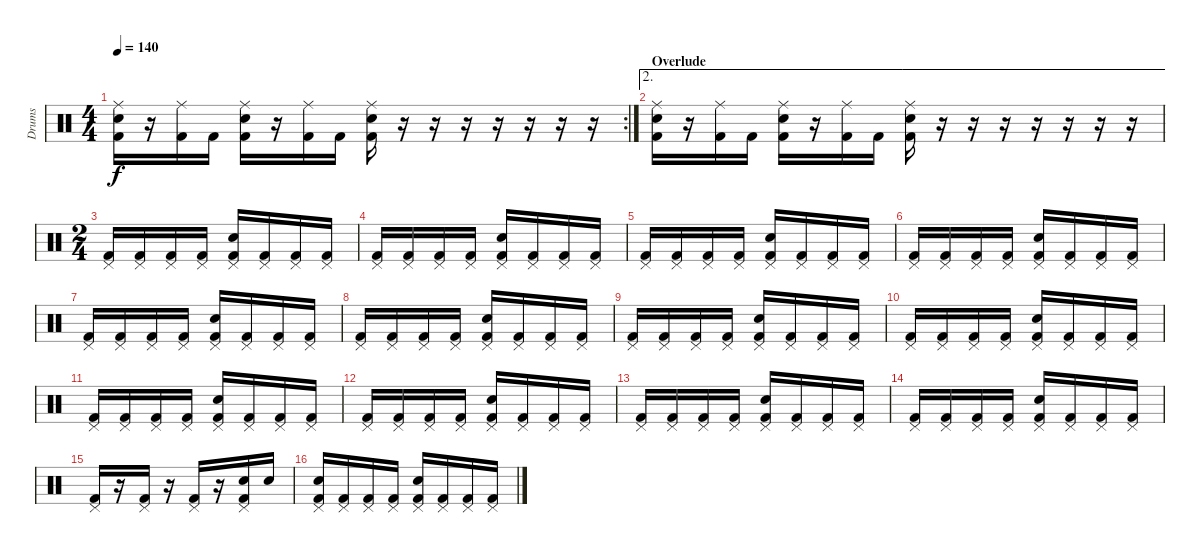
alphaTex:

\track ("Drums" "Drums") {instrument percussion}
\staff {score}
\articulation defaults
\rc 2
\ts (4 4)
\tempo 140
\clef neutral
\ks c
("Ride (middle)" "Snare (hit) 2" "Kick (hit) 2").16{dy f} r.16 ("Ride (middle)" "Kick (hit) 2").16 "Kick (hit) 2".16 ("Ride (middle)" "Snare (hit) 2" "Kick (hit) 2").16 r.16 ("Ride (middle)" "Kick (hit) 2").16 "Kick (hit) 2".16 ("Ride (middle)" "Electric Snare (hit)" "Kick (hit) 2").16 r.16 r.16 r.16 r.16 r.16 r.16 r.16 |
\ae 2
\section ("" "Overlude")
("Ride (middle)" "Snare (hit) 2" "Kick (hit) 2").16 r.16 ("Ride (middle)" "Kick (hit) 2").16 "Kick (hit) 2".16 ("Ride (middle)" "Snare (hit) 2" "Kick (hit) 2").16 r.16 ("Ride (middle)" "Kick (hit) 2").16 "Kick (hit) 2".16 ("Ride (middle)" "Electric Snare (hit)" "Kick (hit) 2").16 r.16 r.16 r.16 r.16 r.16 r.16 r.16 |
\ts (2 4)
("Pedal Hi-Hat (hit)" "Kick (hit) 2").16 ("Pedal Hi-Hat (hit)" "Kick (hit) 2").16 ("Pedal Hi-Hat (hit)" "Kick (hit) 2").16 ("Pedal Hi-Hat (hit)" "Kick (hit) 2").16 ("Pedal Hi-Hat (hit)" "Electric Snare (hit)" "Kick (hit) 2").16 ("Pedal Hi-Hat (hit)" "Kick (hit) 2").16 ("Pedal Hi-Hat (hit)" "Kick (hit) 2").16 ("Pedal Hi-Hat (hit)" "Kick (hit) 2").16 |
("Pedal Hi-Hat (hit)" "Kick (hit) 2").16 ("Pedal Hi-Hat (hit)" "Kick (hit) 2").16 ("Pedal Hi-Hat (hit)" "Kick (hit) 2").16 ("Pedal Hi-Hat (hit)" "Kick (hit) 2").16 ("Pedal Hi-Hat (hit)" "Electric Snare (hit)" "Kick (hit) 2").16 ("Pedal Hi-Hat (hit)" "Kick (hit) 2").16 ("Pedal Hi-Hat (hit)" "Kick (hit) 2").16 ("Pedal Hi-Hat (hit)" "Kick (hit) 2").16 |
("Pedal Hi-Hat (hit)" "Kick (hit) 2").16 ("Pedal Hi-Hat (hit)" "Kick (hit) 2").16 ("Pedal Hi-Hat (hit)" "Kick (hit) 2").16 ("Pedal Hi-Hat (hit)" "Kick (hit) 2").16 ("Pedal Hi-Hat (hit)" "Electric Snare (hit)" "Kick (hit) 2").16 ("Pedal Hi-Hat (hit)" "Kick (hit) 2").16 ("Pedal Hi-Hat (hit)" "Kick (hit) 2").16 ("Pedal Hi-Hat (hit)" "Kick (hit) 2").16 |
("Pedal Hi-Hat (hit)" "Kick (hit) 2").16 ("Pedal Hi-Hat (hit)" "Kick (hit) 2").16 ("Pedal Hi-Hat (hit)" "Kick (hit) 2").16 ("Pedal Hi-Hat (hit)" "Kick (hit) 2").16 ("Pedal Hi-Hat (hit)" "Electric Snare (hit)" "Kick (hit) 2").16 ("Pedal Hi-Hat (hit)" "Kick (hit) 2").16 ("Pedal Hi-Hat (hit)" "Kick (hit) 2").16 ("Pedal Hi-Hat (hit)" "Kick (hit) 2").16 |
("Pedal Hi-Hat (hit)" "Kick (hit) 2").16 ("Pedal Hi-Hat (hit)" "Kick (hit) 2").16 ("Pedal Hi-Hat (hit)" "Kick (hit) 2").16 ("Pedal Hi-Hat (hit)" "Kick (hit) 2").16 ("Pedal Hi-Hat (hit)" "Electric Snare (hit)" "Kick (hit) 2").16 ("Pedal Hi-Hat (hit)" "Kick (hit) 2").16 ("Pedal Hi-Hat (hit)" "Kick (hit) 2").16 ("Pedal Hi-Hat (hit)" "Kick (hit) 2").16 |
("Pedal Hi-Hat (hit)" "Kick (hit) 2").16 ("Pedal Hi-Hat (hit)" "Kick (hit) 2").16 ("Pedal Hi-Hat (hit)" "Kick (hit) 2").16 ("Pedal Hi-Hat (hit)" "Kick (hit) 2").16 ("Pedal Hi-Hat (hit)" "Electric Snare (hit)" "Kick (hit) 2").16 ("Pedal Hi-Hat (hit)" "Kick (hit) 2").16 ("Pedal Hi-Hat (hit)" "Kick (hit) 2").16 ("Pedal Hi-Hat (hit)" "Kick (hit) 2").16 |
("Pedal Hi-Hat (hit)" "Kick (hit) 2").16 ("Pedal Hi-Hat (hit)" "Kick (hit) 2").16 ("Pedal Hi-Hat (hit)" "Kick (hit) 2").16 ("Pedal Hi-Hat (hit)" "Kick (hit) 2").16 ("Pedal Hi-Hat (hit)" "Electric Snare (hit)" "Kick (hit) 2").16 ("Pedal Hi-Hat (hit)" "Kick (hit) 2").16 ("Pedal Hi-Hat (hit)" "Kick (hit) 2").16 ("Pedal Hi-Hat (hit)" "Kick (hit) 2").16 |
("Pedal Hi-Hat (hit)" "Kick (hit) 2").16 ("Pedal Hi-Hat (hit)" "Kick (hit) 2").16 ("Pedal Hi-Hat (hit)" "Kick (hit) 2").16 ("Pedal Hi-Hat (hit)" "Kick (hit) 2").16 ("Pedal Hi-Hat (hit)" "Electric Snare (hit)" "Kick (hit) 2").16 ("Pedal Hi-Hat (hit)" "Kick (hit) 2").16 ("Pedal Hi-Hat (hit)" "Kick (hit) 2").16 ("Pedal Hi-Hat (hit)" "Kick (hit) 2").16 |
("Pedal Hi-Hat (hit)" "Kick (hit) 2").16 ("Pedal Hi-Hat (hit)" "Kick (hit) 2").16 ("Pedal Hi-Hat (hit)" "Kick (hit) 2").16 ("Pedal Hi-Hat (hit)" "Kick (hit) 2").16 ("Pedal Hi-Hat (hit)" "Electric Snare (hit)" "Kick (hit) 2").16 ("Pedal Hi-Hat (hit)" "Kick (hit) 2").16 ("Pedal Hi-Hat (hit)" "Kick (hit) 2").16 ("Pedal Hi-Hat (hit)" "Kick (hit) 2").16 |
("Pedal Hi-Hat (hit)" "Kick (hit) 2").16 ("Pedal Hi-Hat (hit)" "Kick (hit) 2").16 ("Pedal Hi-Hat (hit)" "Kick (hit) 2").16 ("Pedal Hi-Hat (hit)" "Kick (hit) 2").16 ("Pedal Hi-Hat (hit)" "Electric Snare (hit)" "Kick (hit) 2").16 ("Pedal Hi-Hat (hit)" "Kick (hit) 2").16 ("Pedal Hi-Hat (hit)" "Kick (hit) 2").16 ("Pedal Hi-Hat (hit)" "Kick (hit) 2").16 |
("Pedal Hi-Hat (hit)" "Kick (hit) 2").16 ("Pedal Hi-Hat (hit)" "Kick (hit) 2").16 ("Pedal Hi-Hat (hit)" "Kick (hit) 2").16 ("Pedal Hi-Hat (hit)" "Kick (hit) 2").16 ("Pedal Hi-Hat (hit)" "Electric Snare (hit)" "Kick (hit) 2").16 ("Pedal Hi-Hat (hit)" "Kick (hit) 2").16 ("Pedal Hi-Hat (hit)" "Kick (hit) 2").16 ("Pedal Hi-Hat (hit)" "Kick (hit) 2").16 |
("Pedal Hi-Hat (hit)" "Kick (hit) 2").16 ("Pedal Hi-Hat (hit)" "Kick (hit) 2").16 ("Pedal Hi-Hat (hit)" "Kick (hit) 2").16 ("Pedal Hi-Hat (hit)" "Kick (hit) 2").16 ("Pedal Hi-Hat (hit)" "Electric Snare (hit)" "Kick (hit) 2").16 ("Pedal Hi-Hat (hit)" "Kick (hit) 2").16 ("Pedal Hi-Hat (hit)" "Kick (hit) 2").16 ("Pedal Hi-Hat (hit)" "Kick (hit) 2").16 |
("Pedal Hi-Hat (hit)" "Kick (hit) 2").16 r.16 ("Pedal Hi-Hat (hit)" "Kick (hit) 2").16 r.16 ("Pedal Hi-Hat (hit)" "Kick (hit) 2").16 r.16 ("Pedal Hi-Hat (hit)" "Electric Snare (hit)" "Kick (hit) 2").16 "Electric Snare (hit)".16 |
("Pedal Hi-Hat (hit)" "Electric Snare (hit)" "Kick (hit) 2").16 ("Pedal Hi-Hat (hit)" "Kick (hit) 2").16 ("Pedal Hi-Hat (hit)" "Kick (hit) 2").16 ("Pedal Hi-Hat (hit)" "Kick (hit) 2").16 ("Pedal Hi-Hat (hit)" "Electric Snare (hit)" "Kick (hit) 2").16 ("Pedal Hi-Hat (hit)" "Kick (hit) 2").16 ("Pedal Hi-Hat (hit)" "Kick (hit) 2").16 ("Pedal Hi-Hat (hit)" "Kick (hit) 2").16
